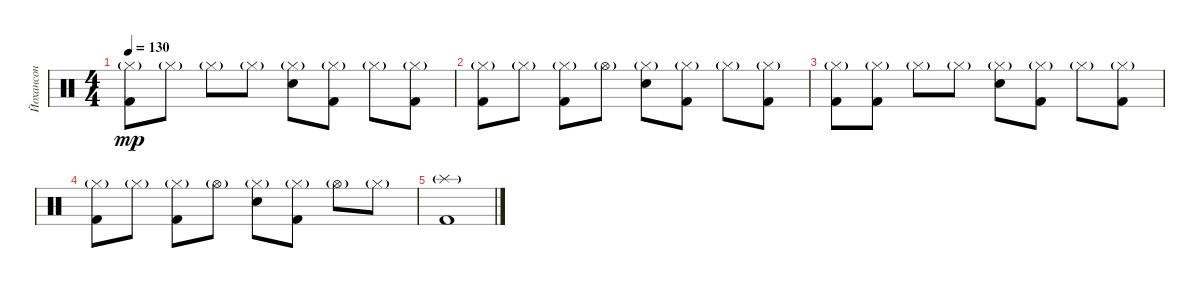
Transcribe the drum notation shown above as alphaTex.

\track ("Йохансон" "Йохансон") {instrument percussion}
\staff {score}
\articulation defaults
\ts (4 4)
\tempo 130
\clef neutral
\ks c
("Hi-Hat (closed)"{g} "Kick (hit) 2").8{dy mp} "Hi-Hat (closed)"{g}.8 "Hi-Hat (closed)"{g}.8 "Hi-Hat (closed)"{g}.8 ("Hi-Hat (closed)"{g} "Snare (hit) 2").8 ("Hi-Hat (closed)"{g} "Kick (hit) 2").8 "Hi-Hat (closed)"{g}.8 ("Hi-Hat (closed)"{g} "Kick (hit) 2").8 |
("Hi-Hat (closed)"{g} "Kick (hit) 2").8 "Hi-Hat (closed)"{g}.8 ("Hi-Hat (closed)"{g} "Kick (hit) 2").8 "Hi-Hat (open)"{g}.8 ("Hi-Hat (closed)"{g} "Snare (hit) 2").8 ("Hi-Hat (closed)"{g} "Kick (hit) 2").8 "Hi-Hat (closed)"{g}.8 ("Hi-Hat (closed)"{g} "Kick (hit) 2").8 |
("Hi-Hat (closed)"{g} "Kick (hit) 2").8 ("Hi-Hat (closed)"{g} "Kick (hit) 2").8 "Hi-Hat (closed)"{g}.8 "Hi-Hat (closed)"{g}.8 ("Hi-Hat (closed)"{g} "Snare (hit) 2").8 ("Hi-Hat (closed)"{g} "Kick (hit) 2").8 "Hi-Hat (closed)"{g}.8 ("Hi-Hat (closed)"{g} "Kick (hit) 2").8 |
("Hi-Hat (closed)"{g} "Kick (hit) 2").8 "Hi-Hat (closed)"{g}.8 ("Hi-Hat (closed)"{g} "Kick (hit) 2").8 "Hi-Hat (open)"{g}.8 ("Hi-Hat (closed)"{g} "Snare (hit) 2").8 ("Hi-Hat (closed)"{g} "Kick (hit) 2").8 "Hi-Hat (open)"{g}.8 "Hi-Hat (closed)"{g}.8 |
("Splash (hit)"{g} "Kick (hit) 2").1
